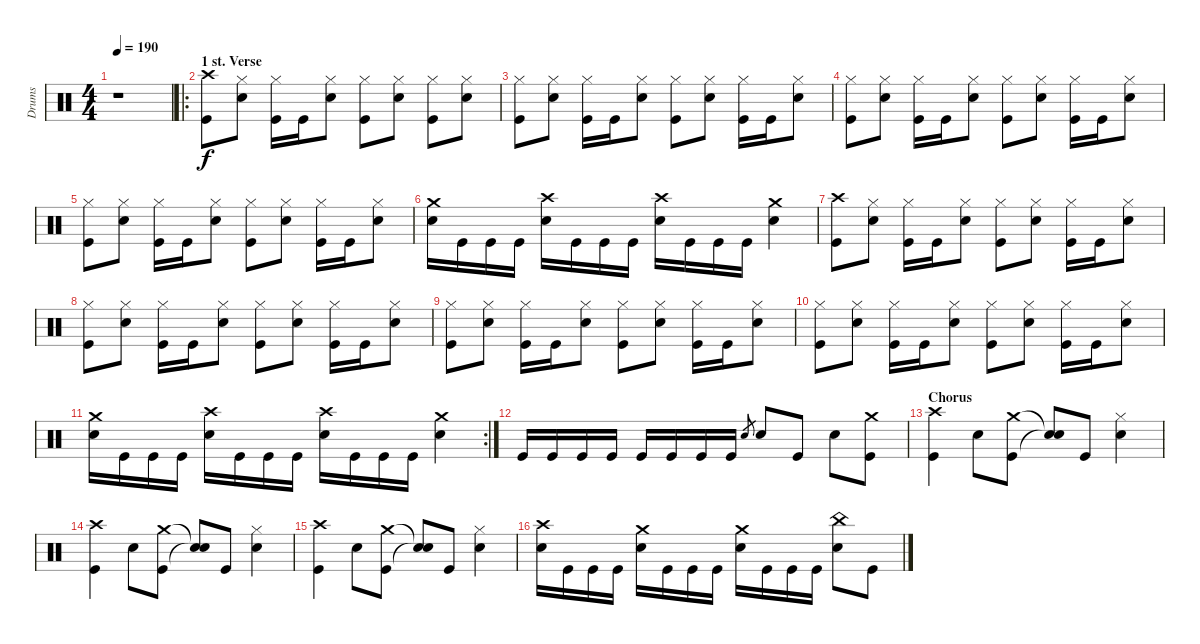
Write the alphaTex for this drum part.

\track ("Drums" "Drums") {instrument percussion}
\staff {score}
\articulation defaults
\ts (4 4)
\tempo 190
\clef neutral
\ks c
r.1{dy f} |
\ro
\section ("" "1 st. Verse")
("Crash high (hit)" "Kick (hit)").8 ("Hi-Hat (closed)" "Snare (hit) 2").8 ("Hi-Hat (closed)" "Kick (hit)").16 "Kick (hit)".16 ("Hi-Hat (closed)" "Snare (hit) 2").8 ("Hi-Hat (closed)" "Kick (hit)").8 ("Hi-Hat (closed)" "Snare (hit) 2").8 ("Hi-Hat (closed)" "Kick (hit)").8 ("Hi-Hat (closed)" "Snare (hit) 2").8 |
("Hi-Hat (closed)" "Kick (hit)").8 ("Hi-Hat (closed)" "Snare (hit) 2").8 ("Hi-Hat (closed)" "Kick (hit)").16 "Kick (hit)".16 ("Hi-Hat (closed)" "Snare (hit) 2").8 ("Hi-Hat (closed)" "Kick (hit)").8 ("Hi-Hat (closed)" "Snare (hit) 2").8 ("Hi-Hat (closed)" "Kick (hit)").16 "Kick (hit)".16 ("Hi-Hat (closed)" "Snare (hit) 2").8 |
("Hi-Hat (closed)" "Kick (hit)").8 ("Hi-Hat (closed)" "Snare (hit) 2").8 ("Hi-Hat (closed)" "Kick (hit)").16 "Kick (hit)".16 ("Hi-Hat (closed)" "Snare (hit) 2").8 ("Hi-Hat (closed)" "Kick (hit)").8 ("Hi-Hat (closed)" "Snare (hit) 2").8 ("Hi-Hat (closed)" "Kick (hit)").16 "Kick (hit)".16 ("Hi-Hat (closed)" "Snare (hit) 2").8 |
("Hi-Hat (closed)" "Kick (hit)").8 ("Hi-Hat (closed)" "Snare (hit) 2").8 ("Hi-Hat (closed)" "Kick (hit)").16 "Kick (hit)".16 ("Hi-Hat (closed)" "Snare (hit) 2").8 ("Hi-Hat (closed)" "Kick (hit)").8 ("Hi-Hat (closed)" "Snare (hit) 2").8 ("Hi-Hat (closed)" "Kick (hit)").16 "Kick (hit)".16 ("Hi-Hat (closed)" "Snare (hit) 2").8 |
("Crash medium (hit)" "Snare (hit) 2").16 "Kick (hit)".16 "Kick (hit)".16 "Kick (hit)".16 ("Crash high (hit)" "Snare (hit) 2").16 "Kick (hit)".16 "Kick (hit)".16 "Kick (hit)".16 ("Crash high (hit)" "Snare (hit) 2").16 "Kick (hit)".16 "Kick (hit)".16 "Kick (hit)".16 ("Crash medium (hit)" "Snare (hit) 2").4 |
("Crash high (hit)" "Kick (hit)").8 ("Hi-Hat (closed)" "Snare (hit) 2").8 ("Hi-Hat (closed)" "Kick (hit)").16 "Kick (hit)".16 ("Hi-Hat (closed)" "Snare (hit) 2").8 ("Hi-Hat (closed)" "Kick (hit)").8 ("Hi-Hat (closed)" "Snare (hit) 2").8 ("Hi-Hat (closed)" "Kick (hit)").16 "Kick (hit)".16 ("Hi-Hat (closed)" "Snare (hit) 2").8 |
("Hi-Hat (closed)" "Kick (hit)").8 ("Hi-Hat (closed)" "Snare (hit) 2").8 ("Hi-Hat (closed)" "Kick (hit)").16 "Kick (hit)".16 ("Hi-Hat (closed)" "Snare (hit) 2").8 ("Hi-Hat (closed)" "Kick (hit)").8 ("Hi-Hat (closed)" "Snare (hit) 2").8 ("Hi-Hat (closed)" "Kick (hit)").16 "Kick (hit)".16 ("Hi-Hat (closed)" "Snare (hit) 2").8 |
("Hi-Hat (closed)" "Kick (hit)").8 ("Hi-Hat (closed)" "Snare (hit) 2").8 ("Hi-Hat (closed)" "Kick (hit)").16 "Kick (hit)".16 ("Hi-Hat (closed)" "Snare (hit) 2").8 ("Hi-Hat (closed)" "Kick (hit)").8 ("Hi-Hat (closed)" "Snare (hit) 2").8 ("Hi-Hat (closed)" "Kick (hit)").16 "Kick (hit)".16 ("Hi-Hat (closed)" "Snare (hit) 2").8 |
("Hi-Hat (closed)" "Kick (hit)").8 ("Hi-Hat (closed)" "Snare (hit) 2").8 ("Hi-Hat (closed)" "Kick (hit)").16 "Kick (hit)".16 ("Hi-Hat (closed)" "Snare (hit) 2").8 ("Hi-Hat (closed)" "Kick (hit)").8 ("Hi-Hat (closed)" "Snare (hit) 2").8 ("Hi-Hat (closed)" "Kick (hit)").16 "Kick (hit)".16 ("Hi-Hat (closed)" "Snare (hit) 2").8 |
\rc 2
("Crash medium (hit)" "Snare (hit) 2").16 "Kick (hit)".16 "Kick (hit)".16 "Kick (hit)".16 ("Crash high (hit)" "Snare (hit) 2").16 "Kick (hit)".16 "Kick (hit)".16 "Kick (hit)".16 ("Crash high (hit)" "Snare (hit) 2").16 "Kick (hit)".16 "Kick (hit)".16 "Kick (hit)".16 ("Crash medium (hit)" "Snare (hit) 2").4 |
"Kick (hit)".16 "Kick (hit)".16 "Kick (hit)".16 "Kick (hit)".16 "Kick (hit)".16 "Kick (hit)".16 "Kick (hit)".16 "Kick (hit)".16 "Snare (hit) 2".8{gr} "Snare (hit) 2".8 "Kick (hit)".8 "Snare (hit) 2".8 ("Crash medium (hit)" "Kick (hit)").8 |
\section ("" "Chorus")
("Crash high (hit)" "Kick (hit)").4 "Snare (hit) 2".8 ("Crash medium (hit)" "Kick (hit)").8 ("Snare (hit)"{t} "Snare (hit)"{t}).8 "Kick (hit)".8 ("Hi-Hat (closed)" "Snare (hit) 2").4 |
("Crash high (hit)" "Kick (hit)").4 "Snare (hit) 2".8 ("Crash medium (hit)" "Kick (hit)").8 ("Snare (hit)"{t} "Snare (hit)"{t}).8 "Kick (hit)".8 ("Hi-Hat (closed)" "Snare (hit) 2").4 |
("Crash high (hit)" "Kick (hit)").4 "Snare (hit) 2".8 ("Crash medium (hit)" "Kick (hit)").8 ("Snare (hit)"{t} "Snare (hit)"{t}).8 "Kick (hit)".8 ("Hi-Hat (closed)" "Snare (hit) 2").4 |
("Crash high (hit)" "Snare (hit) 2").16 "Kick (hit)".16 "Kick (hit)".16 "Kick (hit)".16 ("Crash medium (hit)" "Snare (hit) 2").16 "Kick (hit)".16 "Kick (hit)".16 "Kick (hit)".16 ("Crash medium (hit)" "Snare (hit) 2").16 "Kick (hit)".16 "Kick (hit)".16 "Kick (hit)".16 ("China (hit)" "Snare (hit) 2").8 "Kick (hit)".8
